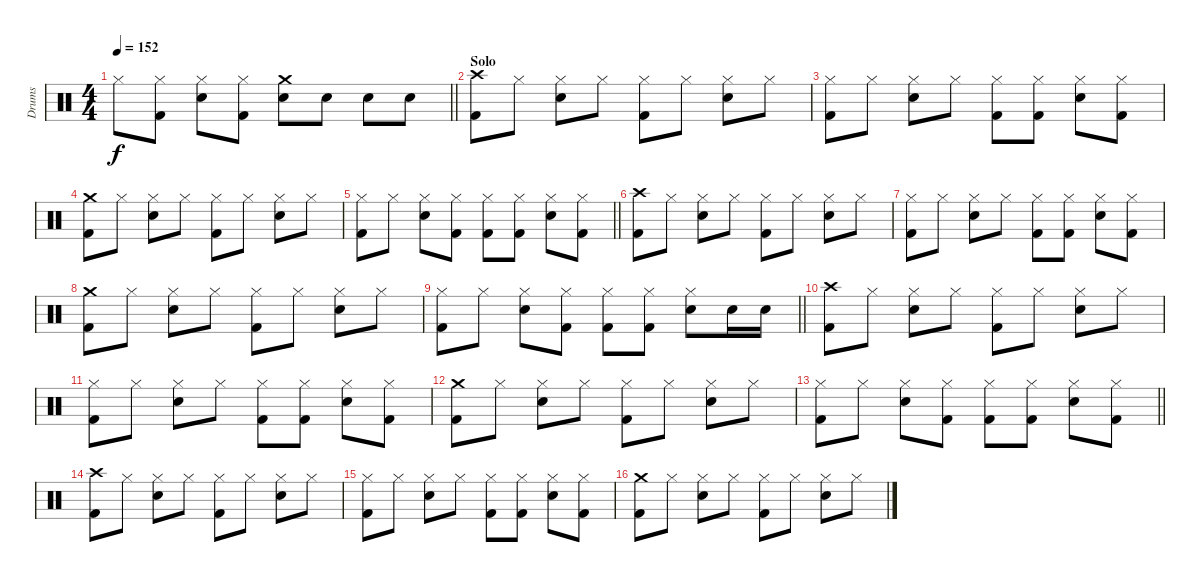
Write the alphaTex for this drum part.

\track ("Drums" "Drums") {instrument percussion}
\staff
\articulation defaults
\ts (4 4)
\tempo 152
\clef neutral
\barLineRight lightlight
\ks c "Hi-Hat (closed)".8{dy f}
("Hi-Hat (closed)" "Kick (hit) 2").8 ("Hi-Hat (closed)" "Electric Snare (hit)").8 ("Hi-Hat (closed)" "Kick (hit) 2").8 ("Crash medium (hit)" "Electric Snare (hit)").8 "Electric Snare (hit)".8 "Electric Snare (hit)".8 "Electric Snare (hit)".8 |
\section ("" "Solo")
("Crash high (hit)" "Kick (hit) 2").8 "Hi-Hat (closed)".8 ("Hi-Hat (closed)" "Electric Snare (hit)").8 "Hi-Hat (closed)".8 ("Hi-Hat (closed)" "Kick (hit) 2").8 "Hi-Hat (closed)".8 ("Hi-Hat (closed)" "Electric Snare (hit)").8 "Hi-Hat (closed)".8 |
("Hi-Hat (closed)" "Kick (hit) 2").8 "Hi-Hat (closed)".8 ("Hi-Hat (closed)" "Electric Snare (hit)").8 "Hi-Hat (closed)".8 ("Hi-Hat (closed)" "Kick (hit) 2").8 ("Hi-Hat (closed)" "Kick (hit) 2").8 ("Hi-Hat (closed)" "Electric Snare (hit)").8 ("Hi-Hat (closed)" "Kick (hit) 2").8 |
("Crash medium (hit)" "Kick (hit) 2").8 "Hi-Hat (closed)".8 ("Hi-Hat (closed)" "Electric Snare (hit)").8 "Hi-Hat (closed)".8 ("Hi-Hat (closed)" "Kick (hit) 2").8 "Hi-Hat (closed)".8 ("Hi-Hat (closed)" "Electric Snare (hit)").8 "Hi-Hat (closed)".8 |
\barLineRight lightlight
("Hi-Hat (closed)" "Kick (hit) 2").8 "Hi-Hat (closed)".8 ("Hi-Hat (closed)" "Electric Snare (hit)").8 ("Hi-Hat (closed)" "Kick (hit) 2").8 ("Hi-Hat (closed)" "Kick (hit) 2").8 ("Hi-Hat (closed)" "Kick (hit) 2").8 ("Hi-Hat (closed)" "Electric Snare (hit)").8 ("Hi-Hat (closed)" "Kick (hit) 2").8 |
("Crash high (hit)" "Kick (hit) 2").8 "Hi-Hat (closed)".8 ("Hi-Hat (closed)" "Electric Snare (hit)").8 "Hi-Hat (closed)".8 ("Hi-Hat (closed)" "Kick (hit) 2").8 "Hi-Hat (closed)".8 ("Hi-Hat (closed)" "Electric Snare (hit)").8 "Hi-Hat (closed)".8 |
("Hi-Hat (closed)" "Kick (hit) 2").8 "Hi-Hat (closed)".8 ("Hi-Hat (closed)" "Electric Snare (hit)").8 "Hi-Hat (closed)".8 ("Hi-Hat (closed)" "Kick (hit) 2").8 ("Hi-Hat (closed)" "Kick (hit) 2").8 ("Hi-Hat (closed)" "Electric Snare (hit)").8 ("Hi-Hat (closed)" "Kick (hit) 2").8 |
("Crash medium (hit)" "Kick (hit) 2").8 "Hi-Hat (closed)".8 ("Hi-Hat (closed)" "Electric Snare (hit)").8 "Hi-Hat (closed)".8 ("Hi-Hat (closed)" "Kick (hit) 2").8 "Hi-Hat (closed)".8 ("Hi-Hat (closed)" "Electric Snare (hit)").8 "Hi-Hat (closed)".8 |
\barLineRight lightlight
("Hi-Hat (closed)" "Kick (hit) 2").8 "Hi-Hat (closed)".8 ("Hi-Hat (closed)" "Electric Snare (hit)").8 ("Hi-Hat (closed)" "Kick (hit) 2").8 ("Hi-Hat (closed)" "Kick (hit) 2").8 ("Hi-Hat (closed)" "Kick (hit) 2").8 ("Hi-Hat (closed)" "Electric Snare (hit)").8 "Electric Snare (hit)".16 "Electric Snare (hit)".16 |
("Crash high (hit)" "Kick (hit) 2").8 "Hi-Hat (closed)".8 ("Hi-Hat (closed)" "Electric Snare (hit)").8 "Hi-Hat (closed)".8 ("Hi-Hat (closed)" "Kick (hit) 2").8 "Hi-Hat (closed)".8 ("Hi-Hat (closed)" "Electric Snare (hit)").8 "Hi-Hat (closed)".8 |
("Hi-Hat (closed)" "Kick (hit) 2").8 "Hi-Hat (closed)".8 ("Hi-Hat (closed)" "Electric Snare (hit)").8 "Hi-Hat (closed)".8 ("Hi-Hat (closed)" "Kick (hit) 2").8 ("Hi-Hat (closed)" "Kick (hit) 2").8 ("Hi-Hat (closed)" "Electric Snare (hit)").8 ("Hi-Hat (closed)" "Kick (hit) 2").8 |
("Crash medium (hit)" "Kick (hit) 2").8 "Hi-Hat (closed)".8 ("Hi-Hat (closed)" "Electric Snare (hit)").8 "Hi-Hat (closed)".8 ("Hi-Hat (closed)" "Kick (hit) 2").8 "Hi-Hat (closed)".8 ("Hi-Hat (closed)" "Electric Snare (hit)").8 "Hi-Hat (closed)".8 |
\barLineRight lightlight
("Hi-Hat (closed)" "Kick (hit) 2").8 "Hi-Hat (closed)".8 ("Hi-Hat (closed)" "Electric Snare (hit)").8 ("Hi-Hat (closed)" "Kick (hit) 2").8 ("Hi-Hat (closed)" "Kick (hit) 2").8 ("Hi-Hat (closed)" "Kick (hit) 2").8 ("Hi-Hat (closed)" "Electric Snare (hit)").8 ("Hi-Hat (closed)" "Kick (hit) 2").8 |
("Crash high (hit)" "Kick (hit) 2").8 "Hi-Hat (closed)".8 ("Hi-Hat (closed)" "Electric Snare (hit)").8 "Hi-Hat (closed)".8 ("Hi-Hat (closed)" "Kick (hit) 2").8 "Hi-Hat (closed)".8 ("Hi-Hat (closed)" "Electric Snare (hit)").8 "Hi-Hat (closed)".8 |
("Hi-Hat (closed)" "Kick (hit) 2").8 "Hi-Hat (closed)".8 ("Hi-Hat (closed)" "Electric Snare (hit)").8 "Hi-Hat (closed)".8 ("Hi-Hat (closed)" "Kick (hit) 2").8 ("Hi-Hat (closed)" "Kick (hit) 2").8 ("Hi-Hat (closed)" "Electric Snare (hit)").8 ("Hi-Hat (closed)" "Kick (hit) 2").8 |
("Crash medium (hit)" "Kick (hit) 2").8 "Hi-Hat (closed)".8 ("Hi-Hat (closed)" "Electric Snare (hit)").8 "Hi-Hat (closed)".8 ("Hi-Hat (closed)" "Kick (hit) 2").8 "Hi-Hat (closed)".8 ("Hi-Hat (closed)" "Electric Snare (hit)").8 "Hi-Hat (closed)".8
